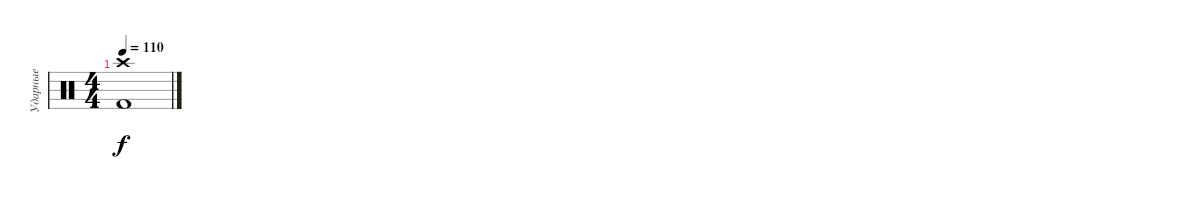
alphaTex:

\track ("Ударные" "Ударные") {instrument percussion}
\staff {score}
\articulation defaults
\ts (4 4)
\tempo 110
\clef neutral
\ks c
("Crash high (hit)" "Kick (hit) 2").1{dy f}
